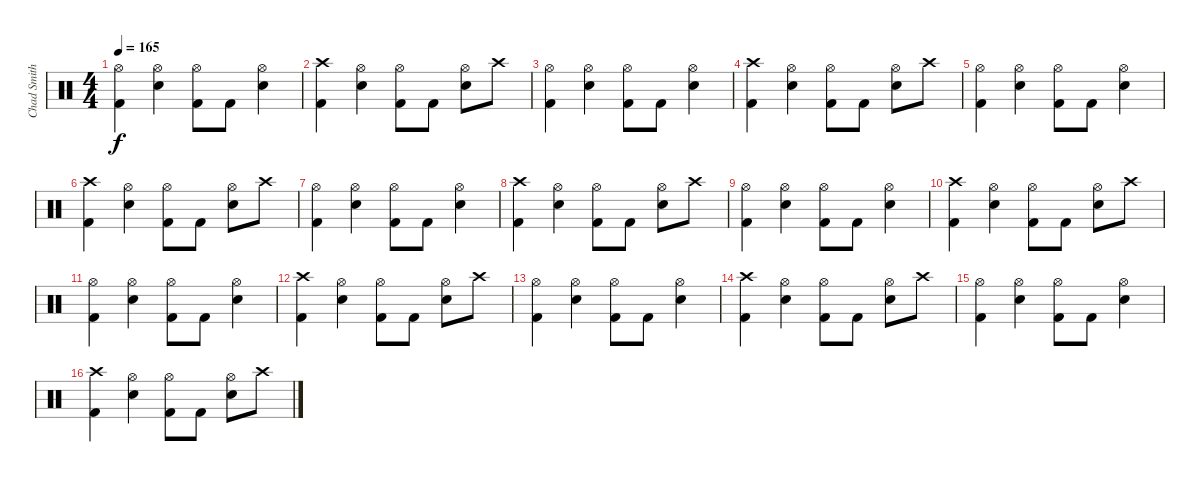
\track ("Chad Smith" "Chad Smith") {instrument percussion}
\staff {score}
\articulation defaults
\ts (4 4)
\tempo 165
\clef neutral
\ks c
("Hi-Hat (open)" "Kick (hit) 2").4{dy f} ("Hi-Hat (open)" "Snare (hit) 2").4 ("Hi-Hat (open)" "Kick (hit) 2").8 "Kick (hit) 2".8 ("Hi-Hat (open)" "Snare (hit) 2").4 |
("Crash high (hit)" "Kick (hit) 2").4 ("Hi-Hat (open)" "Snare (hit) 2").4 ("Hi-Hat (open)" "Kick (hit) 2").8 "Kick (hit) 2".8 ("Hi-Hat (open)" "Snare (hit) 2").8 "Crash high (hit)".8 |
("Hi-Hat (open)" "Kick (hit) 2").4 ("Hi-Hat (open)" "Snare (hit) 2").4 ("Hi-Hat (open)" "Kick (hit) 2").8 "Kick (hit) 2".8 ("Hi-Hat (open)" "Snare (hit) 2").4 |
("Crash high (hit)" "Kick (hit) 2").4 ("Hi-Hat (open)" "Snare (hit) 2").4 ("Hi-Hat (open)" "Kick (hit) 2").8 "Kick (hit) 2".8 ("Hi-Hat (open)" "Snare (hit) 2").8 "Crash high (hit)".8 |
("Hi-Hat (open)" "Kick (hit) 2").4 ("Hi-Hat (open)" "Snare (hit) 2").4 ("Hi-Hat (open)" "Kick (hit) 2").8 "Kick (hit) 2".8 ("Hi-Hat (open)" "Snare (hit) 2").4 |
("Crash high (hit)" "Kick (hit) 2").4 ("Hi-Hat (open)" "Snare (hit) 2").4 ("Hi-Hat (open)" "Kick (hit) 2").8 "Kick (hit) 2".8 ("Hi-Hat (open)" "Snare (hit) 2").8 "Crash high (hit)".8 |
("Hi-Hat (open)" "Kick (hit) 2").4 ("Hi-Hat (open)" "Snare (hit) 2").4 ("Hi-Hat (open)" "Kick (hit) 2").8 "Kick (hit) 2".8 ("Hi-Hat (open)" "Snare (hit) 2").4 |
("Crash high (hit)" "Kick (hit) 2").4 ("Hi-Hat (open)" "Snare (hit) 2").4 ("Hi-Hat (open)" "Kick (hit) 2").8 "Kick (hit) 2".8 ("Hi-Hat (open)" "Snare (hit) 2").8 "Crash high (hit)".8 |
("Hi-Hat (open)" "Kick (hit) 2").4 ("Hi-Hat (open)" "Snare (hit) 2").4 ("Hi-Hat (open)" "Kick (hit) 2").8 "Kick (hit) 2".8 ("Hi-Hat (open)" "Snare (hit) 2").4 |
("Crash high (hit)" "Kick (hit) 2").4 ("Hi-Hat (open)" "Snare (hit) 2").4 ("Hi-Hat (open)" "Kick (hit) 2").8 "Kick (hit) 2".8 ("Hi-Hat (open)" "Snare (hit) 2").8 "Crash high (hit)".8 |
("Hi-Hat (open)" "Kick (hit) 2").4 ("Hi-Hat (open)" "Snare (hit) 2").4 ("Hi-Hat (open)" "Kick (hit) 2").8 "Kick (hit) 2".8 ("Hi-Hat (open)" "Snare (hit) 2").4 |
("Crash high (hit)" "Kick (hit) 2").4 ("Hi-Hat (open)" "Snare (hit) 2").4 ("Hi-Hat (open)" "Kick (hit) 2").8 "Kick (hit) 2".8 ("Hi-Hat (open)" "Snare (hit) 2").8 "Crash high (hit)".8 |
("Hi-Hat (open)" "Kick (hit) 2").4 ("Hi-Hat (open)" "Snare (hit) 2").4 ("Hi-Hat (open)" "Kick (hit) 2").8 "Kick (hit) 2".8 ("Hi-Hat (open)" "Snare (hit) 2").4 |
("Crash high (hit)" "Kick (hit) 2").4 ("Hi-Hat (open)" "Snare (hit) 2").4 ("Hi-Hat (open)" "Kick (hit) 2").8 "Kick (hit) 2".8 ("Hi-Hat (open)" "Snare (hit) 2").8 "Crash high (hit)".8 |
("Hi-Hat (open)" "Kick (hit) 2").4 ("Hi-Hat (open)" "Snare (hit) 2").4 ("Hi-Hat (open)" "Kick (hit) 2").8 "Kick (hit) 2".8 ("Hi-Hat (open)" "Snare (hit) 2").4 |
("Crash high (hit)" "Kick (hit) 2").4 ("Hi-Hat (open)" "Snare (hit) 2").4 ("Hi-Hat (open)" "Kick (hit) 2").8 "Kick (hit) 2".8 ("Hi-Hat (open)" "Snare (hit) 2").8 "Crash high (hit)".8
